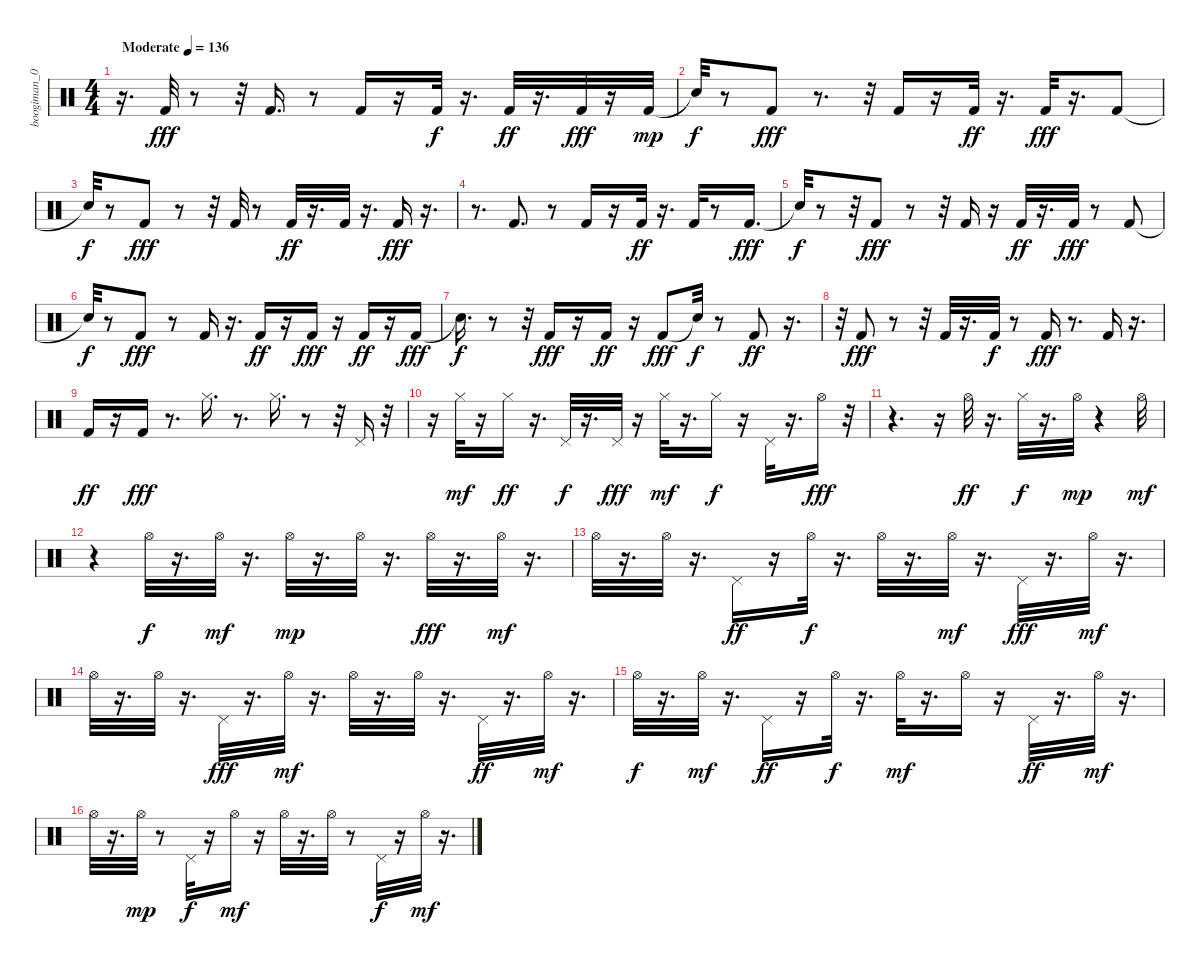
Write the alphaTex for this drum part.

\track ("boogiman_007@yahoo.com" "boogiman_0") {instrument percussion}
\staff {score}
\articulation defaults
\ts (4 4)
\tempo (136 "Moderate")
\clef neutral
\ks c
r.16{d dy fff} "Kick (hit) 2".32 r.8 r.32 "Kick (hit) 2".16{d} r.8 "Kick (hit) 2".16 r.16 "Kick (hit) 2".32{dy f} r.16{d} "Kick (hit) 2".32{dy ff} r.16{d} "Kick (hit) 2".32{dy fff volume 11} r.16 "Kick (hit) 2".32{dy mp volume 12} |
"Snare (hit)"{t}.32{dy f} r.8 "Kick (hit) 2".8{dy fff} r.8{d} r.32 "Kick (hit) 2".16{volume 13} r.16 "Kick (hit) 2".32{dy ff} r.16{d} "Kick (hit) 2".32{dy fff} r.16{d} "Kick (hit) 2".8 |
"Snare (hit)"{t}.32{dy f} r.8 "Kick (hit) 2".8{dy fff} r.8 r.32 "Kick (hit) 2".32 r.8 "Kick (hit) 2".32{dy ff} r.16{d} "Kick (hit) 2".32 r.16{d} "Kick (hit) 2".16{dy fff} r.16{d} |
r.8{d} "Kick (hit) 2".8{d} r.8 "Kick (hit) 2".16 r.16 "Kick (hit) 2".32{dy ff} r.16{d} "Kick (hit) 2".32 r.8 "Kick (hit) 2".16{d dy fff} |
"Snare (hit)"{t}.32{dy f} r.8 r.32 "Kick (hit) 2".8{dy fff} r.8 r.32 "Kick (hit) 2".16 r.16 "Kick (hit) 2".32{dy ff} r.16{d} "Kick (hit) 2".32{dy fff volume 11} r.8 "Kick (hit) 2".8{volume 11} |
"Snare (hit)"{t}.32{dy f} r.8 "Kick (hit) 2".8{dy fff} r.8 "Kick (hit) 2".16 r.16{d} "Kick (hit) 2".16{dy ff volume 11} r.16 "Kick (hit) 2".16{dy fff volume 12} r.16 "Kick (hit) 2".16{dy ff} r.16 "Kick (hit) 2".16{dy fff} |
"Snare (hit)"{t}.16{d dy f} r.8 r.32 "Kick (hit) 2".16{dy fff} r.16 "Kick (hit) 2".16{dy ff} r.16 "Kick (hit) 2".8{dy fff} "Snare (hit)"{t}.32{dy f} r.8 "Kick (hit) 2".8{dy ff} r.16{d} |
r.32 "Kick (hit) 2".8{dy fff} r.8 r.32 "Kick (hit) 2".32 r.16{d} "Kick (hit) 2".32{dy f} r.8 "Kick (hit) 2".16{dy fff} r.8{d} "Kick (hit) 2".16 r.16{d} |
"Kick (hit) 2".16{dy ff} r.16 "Kick (hit) 2".16{dy fff} r.8{d} "Hi-Hat (closed)".16{d} r.8{d} "Hi-Hat (closed)".16{d} r.8 r.32 "Pedal Hi-Hat (hit)".16 r.32 |
r.16 "Hi-Hat (closed)".32{dy mf} r.16 "Hi-Hat (closed)".16{dy ff} r.16{d} "Pedal Hi-Hat (hit)".32{dy f} r.16{d} "Pedal Hi-Hat (hit)".32{dy fff} r.16 "Hi-Hat (closed)".32{dy mf} r.16{d} "Hi-Hat (closed)".16{dy f} r.16 "Pedal Hi-Hat (hit)".32 r.16{d} "Hi-Hat (open)".16{dy fff} r.32 |
r.4{d} r.16 "Hi-Hat (open)".32{dy ff volume 12} r.16{d} "Hi-Hat (closed)".32{dy f} r.16{d} "Hi-Hat (open)".32{dy mp} r.4 "Hi-Hat (open)".32{dy mf volume 12} |
r.4 "Hi-Hat (open)".32{dy f volume 12} r.16{d} "Hi-Hat (open)".32{dy mf} r.16{d} "Hi-Hat (open)".32{dy mp} r.16{d} "Hi-Hat (open)".32 r.16{d} "Hi-Hat (open)".32{dy fff} r.16{d} "Hi-Hat (open)".32{dy mf} r.16{d} |
"Hi-Hat (open)".32 r.16{d} "Hi-Hat (open)".32 r.16{d} "Pedal Hi-Hat (hit)".16{dy ff} r.16 "Hi-Hat (open)".32{dy f} r.16{d} "Hi-Hat (open)".32 r.16{d} "Hi-Hat (open)".32{dy mf} r.16{d} "Pedal Hi-Hat (hit)".32{dy fff} r.16{d} "Hi-Hat (open)".32{dy mf} r.16{d} |
"Hi-Hat (open)".32 r.16{d} "Hi-Hat (open)".32 r.16{d} "Pedal Hi-Hat (hit)".32{dy fff} r.16{d} "Hi-Hat (open)".32{dy mf} r.16{d} "Hi-Hat (open)".32 r.16{d} "Hi-Hat (open)".32 r.16{d} "Pedal Hi-Hat (hit)".32{dy ff} r.16{d} "Hi-Hat (open)".32{dy mf} r.16{d} |
"Hi-Hat (open)".32{dy f} r.16{d} "Hi-Hat (open)".32{dy mf} r.16{d} "Pedal Hi-Hat (hit)".16{dy ff} r.16 "Hi-Hat (open)".32{dy f} r.16{d} "Hi-Hat (open)".32{dy mf} r.16{d} "Hi-Hat (open)".16 r.16 "Pedal Hi-Hat (hit)".32{dy ff} r.16{d} "Hi-Hat (open)".32{dy mf} r.16{d} |
"Hi-Hat (open)".32 r.16{d} "Hi-Hat (open)".32{dy mp} r.8 "Pedal Hi-Hat (hit)".32{dy f} r.16 "Hi-Hat (open)".16{dy mf} r.16 "Hi-Hat (open)".32 r.16{d} "Hi-Hat (open)".32 r.8 "Pedal Hi-Hat (hit)".32{dy f} r.16 "Hi-Hat (open)".32{dy mf} r.16{d}
